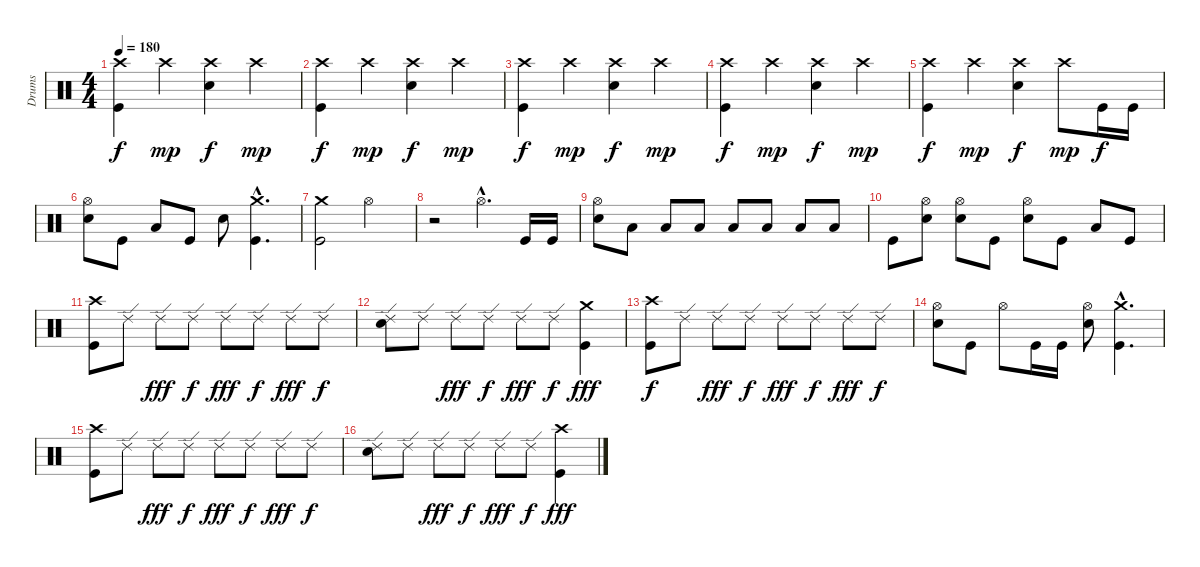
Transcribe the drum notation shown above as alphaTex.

\track ("Drums" "Drums") {instrument percussion}
\staff {score}
\articulation defaults
\ts (4 4)
\tempo 180
\clef neutral
\ks c
("Crash high (hit)" "Kick (hit)").4{dy f} "Crash high (hit)".4{dy mp} ("Crash high (hit)" "Electric Snare (hit)").4{dy f} "Crash high (hit)".4{dy mp} |
("Crash high (hit)" "Kick (hit)").4{dy f} "Crash high (hit)".4{dy mp} ("Crash high (hit)" "Electric Snare (hit)").4{dy f} "Crash high (hit)".4{dy mp} |
("Crash high (hit)" "Kick (hit)").4{dy f} "Crash high (hit)".4{dy mp} ("Crash high (hit)" "Electric Snare (hit)").4{dy f} "Crash high (hit)".4{dy mp} |
("Crash high (hit)" "Kick (hit)").4{dy f} "Crash high (hit)".4{dy mp} ("Crash high (hit)" "Electric Snare (hit)").4{dy f} "Crash high (hit)".4{dy mp} |
("Crash high (hit)" "Kick (hit)").4{dy f} "Crash high (hit)".4{dy mp} ("Crash high (hit)" "Electric Snare (hit)").4{dy f} "Crash high (hit)".8{dy mp} "Kick (hit)".16{dy f} "Kick (hit)".16 |
("Hi-Hat (open)" "Electric Snare (hit)").8 "Kick (hit)".8 "Low Tom (hit)".8 "Kick (hit)".8 "Electric Snare (hit)".8 ("Crash medium (hit)"{hac} "Kick (hit)"{hac}).4{d} |
("Crash medium (hit)" "Kick (hit)").2 "Hi-Hat (open)".2 |
r.2 "Hi-Hat (open)"{hac}.4{d} "Kick (hit)".16 "Kick (hit)".16 |
("Hi-Hat (open)" "Electric Snare (hit)").8 "Low Floor Tom (hit)".8 "Low Floor Tom (hit)".8 "Low Floor Tom (hit)".8 "Low Floor Tom (hit)".8 "Low Floor Tom (hit)".8 "Low Floor Tom (hit)".8 "Low Floor Tom (hit)".8 |
"Kick (hit)".8 ("Hi-Hat (open)" "Electric Snare (hit)").8 ("Hi-Hat (open)" "Electric Snare (hit)").8 "Kick (hit)".8 ("Hi-Hat (open)" "Electric Snare (hit)").8 "Kick (hit)".8 "Low Floor Tom (hit)".8 "Kick (hit)".8 |
("Crash high (hit)" "Kick (hit)").8 "Ride (edge) 2".8 "Ride (edge) 2".8{dy fff} "Ride (edge) 2".8{dy f} "Ride (edge) 2".8{dy fff} "Ride (edge) 2".8{dy f} "Ride (edge) 2".8{dy fff} "Ride (edge) 2".8{dy f} |
("Ride (edge) 2" "Electric Snare (hit)").8 "Ride (edge) 2".8 "Ride (edge) 2".8{dy fff} "Ride (edge) 2".8{dy f} "Ride (edge) 2".8{dy fff} "Ride (edge) 2".8{dy f} ("Crash medium (hit)" "Kick (hit)").4{dy fff} |
("Crash high (hit)" "Kick (hit)").8{dy f} "Ride (edge) 2".8 "Ride (edge) 2".8{dy fff} "Ride (edge) 2".8{dy f} "Ride (edge) 2".8{dy fff} "Ride (edge) 2".8{dy f} "Ride (edge) 2".8{dy fff} "Ride (edge) 2".8{dy f} |
("Hi-Hat (open)" "Electric Snare (hit)").8 "Kick (hit)".8 "Hi-Hat (open)".8 "Kick (hit)".16 "Kick (hit)".16 ("Hi-Hat (open)" "Electric Snare (hit)").8 ("Crash medium (hit)"{hac} "Kick (hit)"{hac}).4{d} |
("Crash high (hit)" "Kick (hit)").8 "Ride (edge) 2".8 "Ride (edge) 2".8{dy fff} "Ride (edge) 2".8{dy f} "Ride (edge) 2".8{dy fff} "Ride (edge) 2".8{dy f} "Ride (edge) 2".8{dy fff} "Ride (edge) 2".8{dy f} |
("Ride (edge) 2" "Electric Snare (hit)").8 "Ride (edge) 2".8 "Ride (edge) 2".8{dy fff} "Ride (edge) 2".8{dy f} "Ride (edge) 2".8{dy fff} "Ride (edge) 2".8{dy f} ("Crash high (hit)" "Kick (hit)").4{dy fff}
